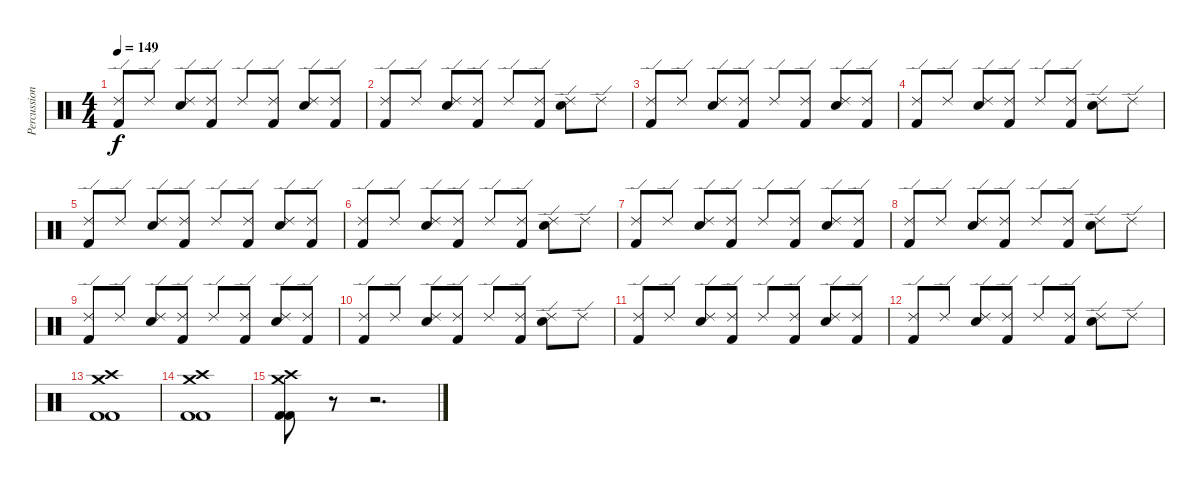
\track ("Percussion" "Percussion") {instrument percussion}
\staff {score}
\articulation defaults
\ts (4 4)
\tempo 149
\clef neutral
\ks c
("Ride (edge) 2" "Kick (hit) 2").8{dy f} "Ride (edge) 2".8 ("Ride (edge) 2" "Electric Snare (hit)").8 ("Ride (edge) 2" "Kick (hit) 2").8 "Ride (edge) 2".8 ("Ride (edge) 2" "Kick (hit) 2").8 ("Ride (edge) 2" "Electric Snare (hit)").8 ("Ride (edge) 2" "Kick (hit) 2").8 |
("Ride (edge) 2" "Kick (hit) 2").8 "Ride (edge) 2".8 ("Ride (edge) 2" "Electric Snare (hit)").8 ("Ride (edge) 2" "Kick (hit) 2").8 "Ride (edge) 2".8 ("Ride (edge) 2" "Kick (hit) 2").8 ("Ride (edge) 2" "Electric Snare (hit)").8 "Ride (edge) 2".8 |
("Ride (edge) 2" "Kick (hit) 2").8 "Ride (edge) 2".8 ("Ride (edge) 2" "Electric Snare (hit)").8 ("Ride (edge) 2" "Kick (hit) 2").8 "Ride (edge) 2".8 ("Ride (edge) 2" "Kick (hit) 2").8 ("Ride (edge) 2" "Electric Snare (hit)").8 ("Ride (edge) 2" "Kick (hit) 2").8 |
("Ride (edge) 2" "Kick (hit) 2").8 "Ride (edge) 2".8 ("Ride (edge) 2" "Electric Snare (hit)").8 ("Ride (edge) 2" "Kick (hit) 2").8 "Ride (edge) 2".8 ("Ride (edge) 2" "Kick (hit) 2").8 ("Ride (edge) 2" "Electric Snare (hit)").8 "Ride (edge) 2".8 |
("Ride (edge) 2" "Kick (hit) 2").8 "Ride (edge) 2".8 ("Ride (edge) 2" "Electric Snare (hit)").8 ("Ride (edge) 2" "Kick (hit) 2").8 "Ride (edge) 2".8 ("Ride (edge) 2" "Kick (hit) 2").8 ("Ride (edge) 2" "Electric Snare (hit)").8 ("Ride (edge) 2" "Kick (hit) 2").8 |
("Ride (edge) 2" "Kick (hit) 2").8 "Ride (edge) 2".8 ("Ride (edge) 2" "Electric Snare (hit)").8 ("Ride (edge) 2" "Kick (hit) 2").8 "Ride (edge) 2".8 ("Ride (edge) 2" "Kick (hit) 2").8 ("Ride (edge) 2" "Electric Snare (hit)").8 "Ride (edge) 2".8 |
("Ride (edge) 2" "Kick (hit) 2").8 "Ride (edge) 2".8 ("Ride (edge) 2" "Electric Snare (hit)").8 ("Ride (edge) 2" "Kick (hit) 2").8 "Ride (edge) 2".8 ("Ride (edge) 2" "Kick (hit) 2").8 ("Ride (edge) 2" "Electric Snare (hit)").8 ("Ride (edge) 2" "Kick (hit) 2").8 |
("Ride (edge) 2" "Kick (hit) 2").8 "Ride (edge) 2".8 ("Ride (edge) 2" "Electric Snare (hit)").8 ("Ride (edge) 2" "Kick (hit) 2").8 "Ride (edge) 2".8 ("Ride (edge) 2" "Kick (hit) 2").8 ("Ride (edge) 2" "Electric Snare (hit)").8 "Ride (edge) 2".8 |
("Ride (edge) 2" "Kick (hit) 2").8 "Ride (edge) 2".8 ("Ride (edge) 2" "Electric Snare (hit)").8 ("Ride (edge) 2" "Kick (hit) 2").8 "Ride (edge) 2".8 ("Ride (edge) 2" "Kick (hit) 2").8 ("Ride (edge) 2" "Electric Snare (hit)").8 ("Ride (edge) 2" "Kick (hit) 2").8 |
("Ride (edge) 2" "Kick (hit) 2").8 "Ride (edge) 2".8 ("Ride (edge) 2" "Electric Snare (hit)").8 ("Ride (edge) 2" "Kick (hit) 2").8 "Ride (edge) 2".8 ("Ride (edge) 2" "Kick (hit) 2").8 ("Ride (edge) 2" "Electric Snare (hit)").8 "Ride (edge) 2".8 |
("Ride (edge) 2" "Kick (hit) 2").8 "Ride (edge) 2".8 ("Ride (edge) 2" "Electric Snare (hit)").8 ("Ride (edge) 2" "Kick (hit) 2").8 "Ride (edge) 2".8 ("Ride (edge) 2" "Kick (hit) 2").8 ("Ride (edge) 2" "Electric Snare (hit)").8 ("Ride (edge) 2" "Kick (hit) 2").8 |
("Ride (edge) 2" "Kick (hit) 2").8 "Ride (edge) 2".8 ("Ride (edge) 2" "Electric Snare (hit)").8 ("Ride (edge) 2" "Kick (hit) 2").8 "Ride (edge) 2".8 ("Ride (edge) 2" "Kick (hit) 2").8 ("Ride (edge) 2" "Electric Snare (hit)").8 "Ride (edge) 2".8 |
("Crash high (hit)" "Crash medium (hit)" "Kick (hit) 2" "Kick (hit) 2").1 |
("Crash high (hit)" "Crash medium (hit)" "Kick (hit) 2" "Kick (hit) 2").1 |
("Crash high (hit)" "Crash medium (hit)" "Kick (hit) 2" "Kick (hit) 2").8 r.8 r.2{d}
